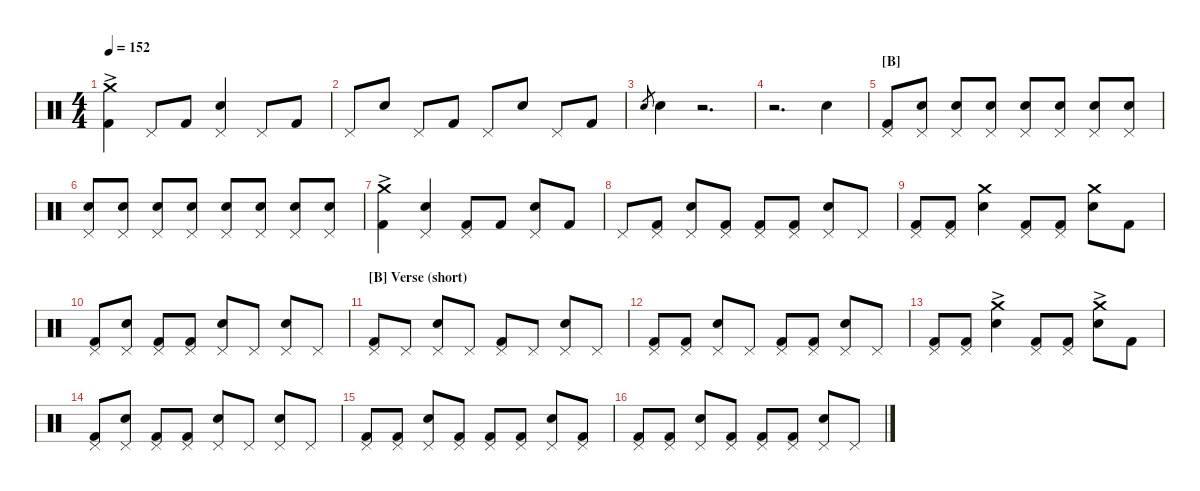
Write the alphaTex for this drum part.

\hideDynamics
\bracketExtendMode nobrackets
\singleTrackTrackNamePolicy hidden
\multiTrackTrackNamePolicy hidden
\firstSystemTrackNameMode fullname
\firstSystemTrackNameOrientation horizontal
\otherSystemsTrackNameOrientation horizontal
\track ("Drumkit" "Drums") {instrument percussion}
\staff {score}
\articulation defaults
\ts (4 4)
\tempo 152
\clef neutral
\ks c
("Crash medium (hit)"{ac} "Kick (hit) 2").4{dy f beam Down} "Pedal Hi-Hat (hit)".8{beam Up} "Kick (hit) 2".8{beam Up} ("Pedal Hi-Hat (hit)" "Snare (hit) 2").4{beam Up} "Pedal Hi-Hat (hit)".8{beam Up} "Kick (hit) 2".8{beam Up} |
"Pedal Hi-Hat (hit)".8{beam Up} "Snare (hit) 2".8{beam Up} "Pedal Hi-Hat (hit)".8{beam Up} "Kick (hit) 2".8{beam Up} "Pedal Hi-Hat (hit)".8{beam Up} "Snare (hit) 2".8{beam Up} "Pedal Hi-Hat (hit)".8{beam Up} "Kick (hit) 2".8{beam Up} |
"Snare (hit) 2".8{gr dy mf beam Up} "Snare (hit) 2".4{dy f beam Down} r.2{d beam Down} |
r.2{d beam Down} "Snare (hit) 2".4{beam Down} |
\section ("B" "")
("Pedal Hi-Hat (hit)" "Kick (hit) 2").8{dy p beam Up} ("Pedal Hi-Hat (hit)" "Snare (hit) 2").8{beam Up} ("Pedal Hi-Hat (hit)" "Snare (hit) 2").8{beam Up} ("Pedal Hi-Hat (hit)" "Snare (hit) 2").8{beam Up} ("Pedal Hi-Hat (hit)" "Snare (hit) 2").8{beam Up} ("Pedal Hi-Hat (hit)" "Snare (hit) 2").8{beam Up} ("Pedal Hi-Hat (hit)" "Snare (hit) 2").8{dy mp beam Up} ("Pedal Hi-Hat (hit)" "Snare (hit) 2").8{beam Up} |
("Pedal Hi-Hat (hit)" "Snare (hit) 2").8{beam Up} ("Pedal Hi-Hat (hit)" "Snare (hit) 2").8{beam Up} ("Pedal Hi-Hat (hit)" "Snare (hit) 2").8{beam Up} ("Pedal Hi-Hat (hit)" "Snare (hit) 2").8{dy mf beam Up} ("Pedal Hi-Hat (hit)" "Snare (hit) 2").8{beam Up} ("Pedal Hi-Hat (hit)" "Snare (hit) 2").8{beam Up} ("Pedal Hi-Hat (hit)" "Snare (hit) 2").8{beam Up} ("Pedal Hi-Hat (hit)" "Snare (hit) 2").8{dy f beam Up} |
("Crash medium (hit)"{ac} "Kick (hit) 2").4{beam Down} ("Pedal Hi-Hat (hit)" "Snare (hit) 2").4{beam Up} ("Pedal Hi-Hat (hit)" "Kick (hit) 2").8{beam Up} "Kick (hit) 2".8{beam Up} ("Pedal Hi-Hat (hit)" "Snare (hit) 2").8{beam Up} "Kick (hit) 2".8{beam Up} |
"Pedal Hi-Hat (hit)".8{beam Up} ("Pedal Hi-Hat (hit)" "Kick (hit) 2").8{beam Up} ("Pedal Hi-Hat (hit)" "Snare (hit) 2").8{beam Up} ("Pedal Hi-Hat (hit)" "Kick (hit) 2").8{beam Up} ("Pedal Hi-Hat (hit)" "Kick (hit) 2").8{beam Up} ("Pedal Hi-Hat (hit)" "Kick (hit) 2").8{beam Up} ("Pedal Hi-Hat (hit)" "Snare (hit) 2").8{beam Up} "Pedal Hi-Hat (hit)".8{beam Up} |
("Pedal Hi-Hat (hit)" "Kick (hit) 2").8{beam Up} ("Pedal Hi-Hat (hit)" "Kick (hit) 2").8{beam Up} ("Crash medium (hit)" "Snare (hit) 2").4{beam Down} ("Pedal Hi-Hat (hit)" "Kick (hit) 2").8{beam Up} ("Pedal Hi-Hat (hit)" "Kick (hit) 2").8{beam Up} ("Crash medium (hit)" "Snare (hit) 2").8{beam Down} "Kick (hit) 2".8{beam Down} |
("Pedal Hi-Hat (hit)" "Kick (hit) 2").8{beam Up} ("Pedal Hi-Hat (hit)" "Snare (hit) 2").8{beam Up} ("Pedal Hi-Hat (hit)" "Kick (hit) 2").8{beam Up} ("Pedal Hi-Hat (hit)" "Kick (hit) 2").8{beam Up} ("Pedal Hi-Hat (hit)" "Snare (hit) 2").8{beam Up} "Pedal Hi-Hat (hit)".8{beam Up} ("Pedal Hi-Hat (hit)" "Snare (hit) 2").8{beam Up} "Pedal Hi-Hat (hit)".8{beam Up} |
\section ("B" "Verse (short)")
("Pedal Hi-Hat (hit)" "Kick (hit) 2").8{beam Up} "Pedal Hi-Hat (hit)".8{beam Up} ("Pedal Hi-Hat (hit)" "Snare (hit) 2").8{beam Up} "Pedal Hi-Hat (hit)".8{beam Up} ("Pedal Hi-Hat (hit)" "Kick (hit) 2").8{beam Up} "Pedal Hi-Hat (hit)".8{beam Up} ("Pedal Hi-Hat (hit)" "Snare (hit) 2").8{beam Up} "Pedal Hi-Hat (hit)".8{beam Up} |
("Pedal Hi-Hat (hit)" "Kick (hit) 2").8{beam Up} ("Pedal Hi-Hat (hit)" "Kick (hit) 2").8{beam Up} ("Pedal Hi-Hat (hit)" "Snare (hit) 2").8{beam Up} "Pedal Hi-Hat (hit)".8{beam Up} ("Pedal Hi-Hat (hit)" "Kick (hit) 2").8{beam Up} ("Pedal Hi-Hat (hit)" "Kick (hit) 2").8{beam Up} ("Pedal Hi-Hat (hit)" "Snare (hit) 2").8{beam Up} "Pedal Hi-Hat (hit)".8{beam Up} |
("Pedal Hi-Hat (hit)" "Kick (hit) 2").8{beam Up} ("Pedal Hi-Hat (hit)" "Kick (hit) 2").8{beam Up} ("Crash medium (hit)"{ac} "Snare (hit) 2").4{beam Down} ("Pedal Hi-Hat (hit)" "Kick (hit) 2").8{beam Up} ("Pedal Hi-Hat (hit)" "Kick (hit) 2").8{beam Up} ("Crash medium (hit)"{ac} "Snare (hit) 2").8{beam Down} "Kick (hit) 2".8{beam Down} |
("Pedal Hi-Hat (hit)" "Kick (hit) 2").8{beam Up} ("Pedal Hi-Hat (hit)" "Snare (hit) 2").8{beam Up} ("Pedal Hi-Hat (hit)" "Kick (hit) 2").8{beam Up} ("Pedal Hi-Hat (hit)" "Kick (hit) 2").8{beam Up} ("Pedal Hi-Hat (hit)" "Snare (hit) 2").8{beam Up} "Pedal Hi-Hat (hit)".8{beam Up} ("Pedal Hi-Hat (hit)" "Snare (hit) 2").8{beam Up} "Pedal Hi-Hat (hit)".8{beam Up} |
("Pedal Hi-Hat (hit)" "Kick (hit) 2").8{beam Up} ("Pedal Hi-Hat (hit)" "Kick (hit) 2").8{beam Up} ("Pedal Hi-Hat (hit)" "Snare (hit) 2").8{beam Up} ("Pedal Hi-Hat (hit)" "Kick (hit) 2").8{beam Up} ("Pedal Hi-Hat (hit)" "Kick (hit) 2").8{beam Up} ("Pedal Hi-Hat (hit)" "Kick (hit) 2").8{beam Up} ("Pedal Hi-Hat (hit)" "Snare (hit) 2").8{beam Up} ("Pedal Hi-Hat (hit)" "Kick (hit) 2").8{beam Up} |
("Pedal Hi-Hat (hit)" "Kick (hit) 2").8{beam Up} ("Pedal Hi-Hat (hit)" "Kick (hit) 2").8{beam Up} ("Pedal Hi-Hat (hit)" "Snare (hit) 2").8{beam Up} ("Pedal Hi-Hat (hit)" "Kick (hit) 2").8{beam Up} ("Pedal Hi-Hat (hit)" "Kick (hit) 2").8{beam Up} ("Pedal Hi-Hat (hit)" "Kick (hit) 2").8{beam Up} ("Pedal Hi-Hat (hit)" "Snare (hit) 2").8{beam Up} "Pedal Hi-Hat (hit)".8{beam Up}
